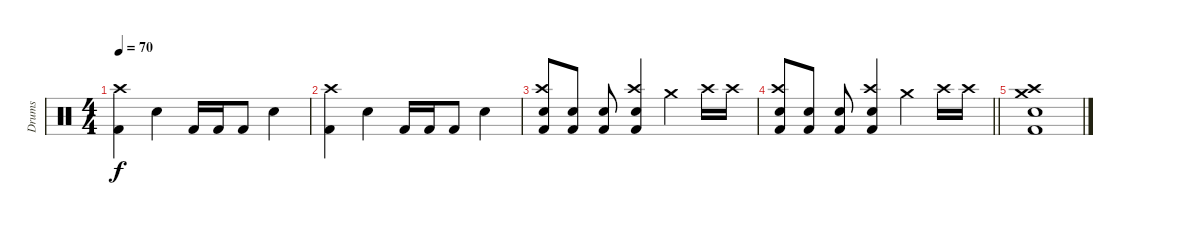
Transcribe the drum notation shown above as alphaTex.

\track ("Drums" "Drums") {instrument percussion}
\staff {score}
\articulation defaults
\ts (4 4)
\tempo 70
\clef neutral
\ks c
("Kick (hit) 2" "Crash high (hit)").4{dy f} "Electric Snare (hit)".4 "Kick (hit) 2".16 "Kick (hit) 2".16 "Kick (hit) 2".8 "Electric Snare (hit)".4 |
("Kick (hit) 2" "Crash high (hit)").4 "Electric Snare (hit)".4 "Kick (hit) 2".16 "Kick (hit) 2".16 "Kick (hit) 2".8 "Electric Snare (hit)".4 |
("Kick (hit) 2" "Crash high (hit)" "Electric Snare (hit)").8 ("Electric Snare (hit)" "Kick (hit) 2").8 ("Electric Snare (hit)" "Kick (hit) 2").8 ("Electric Snare (hit)" "Kick (hit) 2" "Crash high (hit)").4 "Crash medium (hit)".4 "Crash high (hit)".16 "Crash high (hit)".16 |
\barLineRight lightlight
("Kick (hit) 2" "Crash high (hit)" "Electric Snare (hit)").8 ("Electric Snare (hit)" "Kick (hit) 2").8 ("Electric Snare (hit)" "Kick (hit) 2").8 ("Electric Snare (hit)" "Kick (hit) 2" "Crash high (hit)").4 "Crash medium (hit)".4 "Crash high (hit)".16 "Crash high (hit)".16 |
("Electric Snare (hit)" "Kick (hit) 2" "Crash high (hit)" "Crash medium (hit)").1
